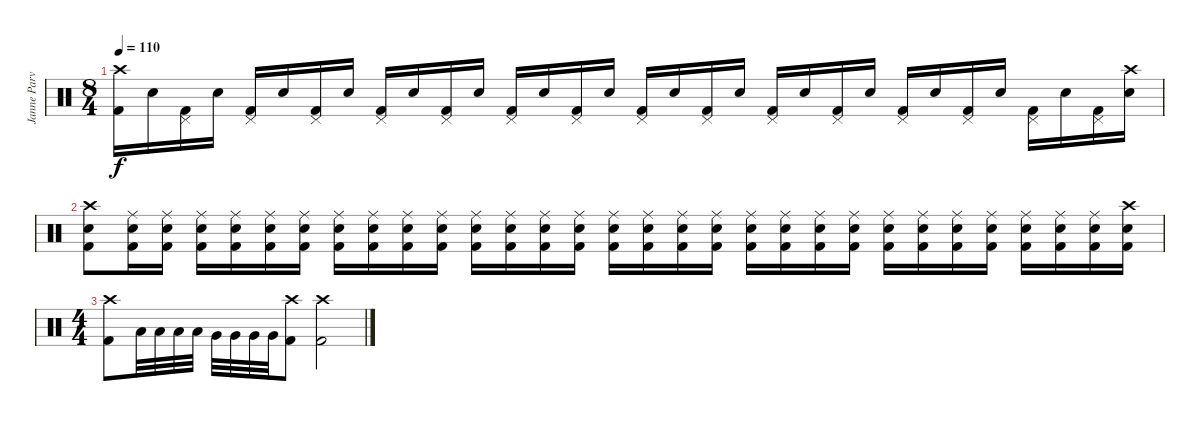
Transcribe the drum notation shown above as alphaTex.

\track ("Janne Parviainen" "Janne Parv") {instrument percussion}
\staff {score}
\articulation defaults
\ts (8 4)
\tempo 110
\clef neutral
\ks c
("Crash high (hit)" "Kick (hit) 2").16{dy f} "Electric Snare (hit)".16 ("Pedal Hi-Hat (hit)" "Kick (hit) 2").16 "Electric Snare (hit)".16 ("Pedal Hi-Hat (hit)" "Kick (hit) 2").16 "Electric Snare (hit)".16 ("Pedal Hi-Hat (hit)" "Kick (hit) 2").16 "Electric Snare (hit)".16 ("Pedal Hi-Hat (hit)" "Kick (hit) 2").16 "Electric Snare (hit)".16 ("Pedal Hi-Hat (hit)" "Kick (hit) 2").16 "Electric Snare (hit)".16 ("Pedal Hi-Hat (hit)" "Kick (hit) 2").16 "Electric Snare (hit)".16 ("Pedal Hi-Hat (hit)" "Kick (hit) 2").16 "Electric Snare (hit)".16 ("Pedal Hi-Hat (hit)" "Kick (hit) 2").16 "Electric Snare (hit)".16 ("Pedal Hi-Hat (hit)" "Kick (hit) 2").16 "Electric Snare (hit)".16 ("Pedal Hi-Hat (hit)" "Kick (hit) 2").16 "Electric Snare (hit)".16 ("Pedal Hi-Hat (hit)" "Kick (hit) 2").16 "Electric Snare (hit)".16 ("Pedal Hi-Hat (hit)" "Kick (hit) 2").16 "Electric Snare (hit)".16 ("Pedal Hi-Hat (hit)" "Kick (hit) 2").16 "Electric Snare (hit)".16 ("Pedal Hi-Hat (hit)" "Kick (hit) 2").16 "Electric Snare (hit)".16 ("Pedal Hi-Hat (hit)" "Kick (hit) 2").16 ("Crash high (hit)" "Electric Snare (hit)").16 |
("Crash high (hit)" "Electric Snare (hit)" "Kick (hit) 2").8 ("Ride (middle)" "Electric Snare (hit)" "Kick (hit) 2").16 ("Ride (middle)" "Electric Snare (hit)" "Kick (hit) 2").16 ("Ride (middle)" "Electric Snare (hit)" "Kick (hit) 2").16 ("Ride (middle)" "Electric Snare (hit)" "Kick (hit) 2").16 ("Ride (middle)" "Electric Snare (hit)" "Kick (hit) 2").16 ("Ride (middle)" "Electric Snare (hit)" "Kick (hit) 2").16 ("Ride (middle)" "Electric Snare (hit)" "Kick (hit) 2").16 ("Ride (middle)" "Electric Snare (hit)" "Kick (hit) 2").16 ("Ride (middle)" "Electric Snare (hit)" "Kick (hit) 2").16 ("Ride (middle)" "Electric Snare (hit)" "Kick (hit) 2").16 ("Ride (middle)" "Electric Snare (hit)" "Kick (hit) 2").16 ("Ride (middle)" "Electric Snare (hit)" "Kick (hit) 2").16 ("Ride (middle)" "Electric Snare (hit)" "Kick (hit) 2").16 ("Ride (middle)" "Electric Snare (hit)" "Kick (hit) 2").16 ("Ride (middle)" "Electric Snare (hit)" "Kick (hit) 2").16 ("Ride (middle)" "Electric Snare (hit)" "Kick (hit) 2").16 ("Ride (middle)" "Electric Snare (hit)" "Kick (hit) 2").16 ("Ride (middle)" "Electric Snare (hit)" "Kick (hit) 2").16 ("Ride (middle)" "Electric Snare (hit)" "Kick (hit) 2").16 ("Ride (middle)" "Electric Snare (hit)" "Kick (hit) 2").16 ("Ride (middle)" "Electric Snare (hit)" "Kick (hit) 2").16 ("Ride (middle)" "Electric Snare (hit)" "Kick (hit) 2").16 ("Ride (middle)" "Electric Snare (hit)" "Kick (hit) 2").16 ("Ride (middle)" "Electric Snare (hit)" "Kick (hit) 2").16 ("Ride (middle)" "Electric Snare (hit)" "Kick (hit) 2").16 ("Ride (middle)" "Electric Snare (hit)" "Kick (hit) 2").16 ("Ride (middle)" "Electric Snare (hit)" "Kick (hit) 2").16 ("Ride (middle)" "Electric Snare (hit)" "Kick (hit) 2").16 ("Ride (middle)" "Electric Snare (hit)" "Kick (hit) 2").16 ("Crash high (hit)" "Electric Snare (hit)" "Kick (hit) 2").16 |
\ts (4 4)
("Crash high (hit)" "Kick (hit) 2").8 "Low Tom (hit)".32 "Low Tom (hit)".32 "Low Tom (hit)".32 "Low Tom (hit)".32 "Very Low Tom (hit)".32 "Very Low Tom (hit)".32 "Very Low Tom (hit)".32 "Very Low Tom (hit)".32 ("Crash high (hit)" "Kick (hit) 2").8 ("Crash high (hit)" "Kick (hit) 2").2
